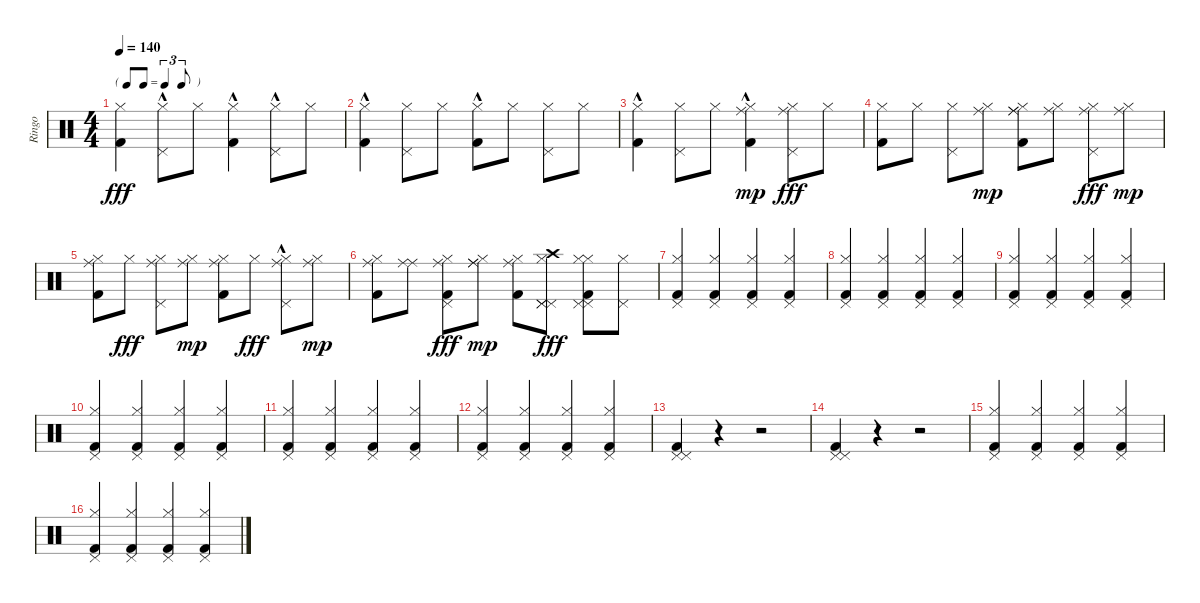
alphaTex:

\track ("Ringo" "Ringo") {instrument percussion}
\staff {score}
\articulation defaults
\ts (4 4)
\tf triplet8th
\tempo 140
\clef neutral
\ks c
("Kick (hit) 2" "Hi-Hat (closed)").4{dy fff} ("Hi-Hat (closed)" "Pedal Hi-Hat (hit)"{hac}).8 "Hi-Hat (closed)".8 ("Kick (hit) 2"{hac} "Hi-Hat (closed)").4 ("Hi-Hat (closed)" "Pedal Hi-Hat (hit)"{hac}).8 "Hi-Hat (closed)".8 |
("Kick (hit) 2"{hac} "Hi-Hat (closed)").4 ("Hi-Hat (closed)" "Pedal Hi-Hat (hit)").8 "Hi-Hat (closed)".8 ("Kick (hit) 2"{hac} "Hi-Hat (closed)").8 "Hi-Hat (closed)".8 ("Hi-Hat (closed)" "Pedal Hi-Hat (hit)").8 "Hi-Hat (closed)".8 |
("Kick (hit) 2"{hac} "Hi-Hat (closed)").4 ("Hi-Hat (closed)" "Pedal Hi-Hat (hit)").8 "Hi-Hat (closed)".8 ("Kick (hit) 2"{hac} "Hi-Hat (closed)" "Ride (middle)").4{dy mp} ("Hi-Hat (closed)" "Ride (middle)" "Pedal Hi-Hat (hit)").8{dy fff} "Hi-Hat (closed)".8 |
("Kick (hit) 2" "Hi-Hat (closed)").8 "Hi-Hat (closed)".8 ("Hi-Hat (closed)" "Pedal Hi-Hat (hit)").8 ("Hi-Hat (closed)" "Ride (middle)").8{dy mp} ("Kick (hit) 2" "Hi-Hat (closed)" "Ride (middle)" "Ride (middle)").8 ("Hi-Hat (closed)" "Ride (middle)").8 ("Hi-Hat (closed)" "Ride (middle)" "Pedal Hi-Hat (hit)").8{dy fff} ("Hi-Hat (closed)" "Ride (middle)").8{dy mp} |
("Kick (hit) 2" "Hi-Hat (closed)" "Ride (middle)").8 "Hi-Hat (closed)".8{dy fff} ("Hi-Hat (closed)" "Ride (middle)" "Pedal Hi-Hat (hit)").8 ("Hi-Hat (closed)" "Ride (middle)").8{dy mp} ("Kick (hit) 2" "Hi-Hat (closed)" "Ride (middle)").8 "Hi-Hat (closed)".8{dy fff} ("Hi-Hat (closed)" "Ride (middle)" "Pedal Hi-Hat (hit)"{hac}).8 ("Hi-Hat (closed)" "Ride (middle)").8{dy mp} |
("Kick (hit) 2" "Hi-Hat (closed)" "Ride (middle)").8 ("Ride (middle)" "Ride (middle)").8 ("Kick (hit) 2" "Hi-Hat (closed)" "Ride (middle)" "Pedal Hi-Hat (hit)").8{dy fff} ("Ride (middle)" "Hi-Hat (closed)" "Ride (middle)").8{dy mp} ("Kick (hit) 2" "Hi-Hat (closed)" "Ride (middle)").8 ("Hi-Hat (closed)" "Crash high (hit)" "Pedal Hi-Hat (hit)" "Pedal Hi-Hat (hit)" "Pedal Hi-Hat (hit)").8{dy fff} ("Kick (hit) 2" "Hi-Hat (closed)" "Pedal Hi-Hat (hit)" "Pedal Hi-Hat (hit)" "Hi-Hat (closed)").8 ("Hi-Hat (closed)" "Pedal Hi-Hat (hit)").8 |
("Kick (hit) 2" "Hi-Hat (closed)" "Pedal Hi-Hat (hit)").4 ("Kick (hit) 2" "Hi-Hat (closed)" "Pedal Hi-Hat (hit)").4 ("Kick (hit) 2" "Hi-Hat (closed)" "Pedal Hi-Hat (hit)").4 ("Kick (hit) 2" "Hi-Hat (closed)" "Pedal Hi-Hat (hit)").4 |
("Kick (hit) 2" "Hi-Hat (closed)" "Pedal Hi-Hat (hit)").4 ("Kick (hit) 2" "Hi-Hat (closed)" "Pedal Hi-Hat (hit)").4 ("Kick (hit) 2" "Hi-Hat (closed)" "Pedal Hi-Hat (hit)").4 ("Kick (hit) 2" "Hi-Hat (closed)" "Pedal Hi-Hat (hit)").4 |
("Kick (hit) 2" "Hi-Hat (closed)" "Pedal Hi-Hat (hit)").4 ("Kick (hit) 2" "Hi-Hat (closed)" "Pedal Hi-Hat (hit)").4 ("Kick (hit) 2" "Hi-Hat (closed)" "Pedal Hi-Hat (hit)").4 ("Kick (hit) 2" "Hi-Hat (closed)" "Pedal Hi-Hat (hit)").4 |
("Kick (hit) 2" "Hi-Hat (closed)" "Pedal Hi-Hat (hit)").4 ("Kick (hit) 2" "Hi-Hat (closed)" "Pedal Hi-Hat (hit)").4 ("Kick (hit) 2" "Hi-Hat (closed)" "Pedal Hi-Hat (hit)").4 ("Kick (hit) 2" "Hi-Hat (closed)" "Pedal Hi-Hat (hit)").4 |
("Kick (hit) 2" "Hi-Hat (closed)" "Pedal Hi-Hat (hit)").4 ("Kick (hit) 2" "Hi-Hat (closed)" "Pedal Hi-Hat (hit)").4 ("Kick (hit) 2" "Hi-Hat (closed)" "Pedal Hi-Hat (hit)").4 ("Kick (hit) 2" "Hi-Hat (closed)" "Pedal Hi-Hat (hit)").4 |
("Kick (hit) 2" "Hi-Hat (closed)" "Pedal Hi-Hat (hit)").4 ("Kick (hit) 2" "Hi-Hat (closed)" "Pedal Hi-Hat (hit)").4 ("Kick (hit) 2" "Hi-Hat (closed)" "Pedal Hi-Hat (hit)").4 ("Kick (hit) 2" "Hi-Hat (closed)" "Pedal Hi-Hat (hit)").4 |
("Kick (hit) 2" "Pedal Hi-Hat (hit)" "Pedal Hi-Hat (hit)").4 r.4 r.2 |
("Kick (hit) 2" "Pedal Hi-Hat (hit)" "Pedal Hi-Hat (hit)").4 r.4 r.2 |
("Kick (hit) 2" "Hi-Hat (closed)" "Pedal Hi-Hat (hit)").4 ("Kick (hit) 2" "Hi-Hat (closed)" "Pedal Hi-Hat (hit)").4 ("Kick (hit) 2" "Hi-Hat (closed)" "Pedal Hi-Hat (hit)").4 ("Kick (hit) 2" "Hi-Hat (closed)" "Pedal Hi-Hat (hit)").4 |
("Kick (hit) 2" "Hi-Hat (closed)" "Pedal Hi-Hat (hit)").4 ("Kick (hit) 2" "Hi-Hat (closed)" "Pedal Hi-Hat (hit)").4 ("Kick (hit) 2" "Hi-Hat (closed)" "Pedal Hi-Hat (hit)").4 ("Kick (hit) 2" "Hi-Hat (closed)" "Pedal Hi-Hat (hit)").4
